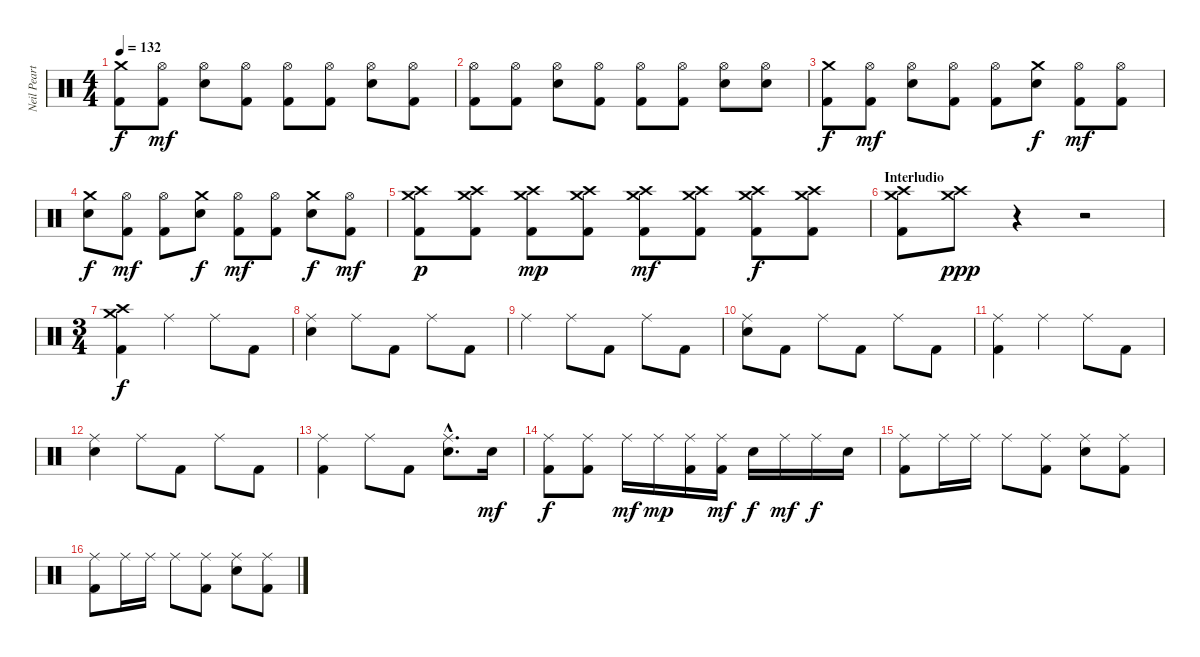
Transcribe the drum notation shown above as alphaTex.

\track ("Neil Peart" "Neil Peart") {instrument percussion}
\staff {score}
\articulation defaults
\ts (4 4)
\tempo 132
\clef neutral
\ks c
("Crash medium (hit)" "Kick (hit) 2").8{dy f} ("Hi-Hat (open)" "Kick (hit) 2").8{dy mf} ("Hi-Hat (open)" "Electric Snare (hit)").8 ("Hi-Hat (open)" "Kick (hit) 2").8 ("Hi-Hat (open)" "Kick (hit) 2").8 ("Hi-Hat (open)" "Kick (hit) 2").8 ("Hi-Hat (open)" "Electric Snare (hit)").8 ("Hi-Hat (open)" "Kick (hit) 2").8 |
("Hi-Hat (open)" "Kick (hit) 2").8 ("Hi-Hat (open)" "Kick (hit) 2").8 ("Hi-Hat (open)" "Electric Snare (hit)").8 ("Hi-Hat (open)" "Kick (hit) 2").8 ("Hi-Hat (open)" "Kick (hit) 2").8 ("Hi-Hat (open)" "Kick (hit) 2").8 ("Hi-Hat (open)" "Electric Snare (hit)").8 ("Hi-Hat (open)" "Electric Snare (hit)").8 |
("Crash medium (hit)" "Kick (hit) 2").8{dy f} ("Hi-Hat (open)" "Kick (hit) 2").8{dy mf} ("Hi-Hat (open)" "Electric Snare (hit)").8 ("Hi-Hat (open)" "Kick (hit) 2").8 ("Hi-Hat (open)" "Kick (hit) 2").8 ("Crash medium (hit)" "Electric Snare (hit)").8{dy f} ("Hi-Hat (open)" "Kick (hit) 2").8{dy mf} ("Hi-Hat (open)" "Kick (hit) 2").8 |
("Crash medium (hit)" "Electric Snare (hit)").8{dy f} ("Hi-Hat (open)" "Kick (hit) 2").8{dy mf} ("Hi-Hat (open)" "Kick (hit) 2").8 ("Crash medium (hit)" "Electric Snare (hit)").8{dy f} ("Hi-Hat (open)" "Kick (hit) 2").8{dy mf} ("Hi-Hat (open)" "Kick (hit) 2").8 ("Crash medium (hit)" "Electric Snare (hit)").8{dy f} ("Hi-Hat (open)" "Kick (hit) 2").8{dy mf} |
("Crash medium (hit)" "Crash high (hit)" "Kick (hit) 2").8{dy p} ("Crash medium (hit)" "Crash high (hit)" "Kick (hit) 2").8 ("Crash medium (hit)" "Crash high (hit)" "Kick (hit) 2").8{dy mp} ("Crash medium (hit)" "Crash high (hit)" "Kick (hit) 2").8 ("Crash medium (hit)" "Crash high (hit)" "Kick (hit) 2").8{dy mf} ("Crash medium (hit)" "Crash high (hit)" "Kick (hit) 2").8 ("Crash medium (hit)" "Crash high (hit)" "Kick (hit) 2").8{dy f} ("Crash medium (hit)" "Crash high (hit)" "Kick (hit) 2").8 |
\section ("" "Interludio")
("Crash medium (hit)" "Crash high (hit)" "Kick (hit) 2").8 ("Crash medium (hit)" "Crash high (hit)").8{dy ppp} r.4 r.2 |
\ts (3 4)
("Crash medium (hit)" "Crash high (hit)" "Kick (hit) 2").4{dy f} "Ride (middle)".4 "Ride (middle)".8 "Kick (hit) 2".8 |
("Ride (middle)" "Electric Snare (hit)").4 "Ride (middle)".8 "Kick (hit) 2".8 "Ride (middle)".8 "Kick (hit) 2".8 |
"Ride (middle)".4 "Ride (middle)".8 "Kick (hit) 2".8 "Ride (middle)".8 "Kick (hit) 2".8 |
("Ride (middle)" "Electric Snare (hit)").8 "Kick (hit) 2".8 "Ride (middle)".8 "Kick (hit) 2".8 "Ride (middle)".8 "Kick (hit) 2".8 |
("Ride (middle)" "Kick (hit) 2").4 "Ride (middle)".4 "Ride (middle)".8 "Kick (hit) 2".8 |
("Ride (middle)" "Electric Snare (hit)").4 "Ride (middle)".8 "Kick (hit) 2".8 "Ride (middle)".8 "Kick (hit) 2".8 |
("Ride (middle)" "Kick (hit) 2").4 "Ride (middle)".8 "Kick (hit) 2".8 ("Ride (middle)"{hac} "Electric Snare (hit)"{hac}).8{d} "Electric Snare (hit)".16{dy mf} |
("Ride (middle)" "Kick (hit) 2").8{dy f} ("Ride (middle)" "Kick (hit) 2").8 "Ride (middle)".16{dy mf} "Ride (middle)".16{dy mp} ("Ride (middle)" "Kick (hit) 2").16 ("Ride (middle)" "Kick (hit) 2").16{dy mf} "Electric Snare (hit)".16{dy f} "Ride (middle)".16{dy mf} "Ride (middle)".16{dy f} "Electric Snare (hit)".16 |
("Ride (middle)" "Kick (hit) 2").8 "Ride (middle)".16 "Ride (middle)".16 "Ride (middle)".8 ("Ride (middle)" "Kick (hit) 2").8 ("Ride (middle)" "Electric Snare (hit)").8 ("Ride (middle)" "Kick (hit) 2").8 |
("Ride (middle)" "Kick (hit) 2").8 "Ride (middle)".16 "Ride (middle)".16 "Ride (middle)".8 ("Ride (middle)" "Kick (hit) 2").8 ("Ride (middle)" "Electric Snare (hit)").8 ("Ride (middle)" "Kick (hit) 2").8
